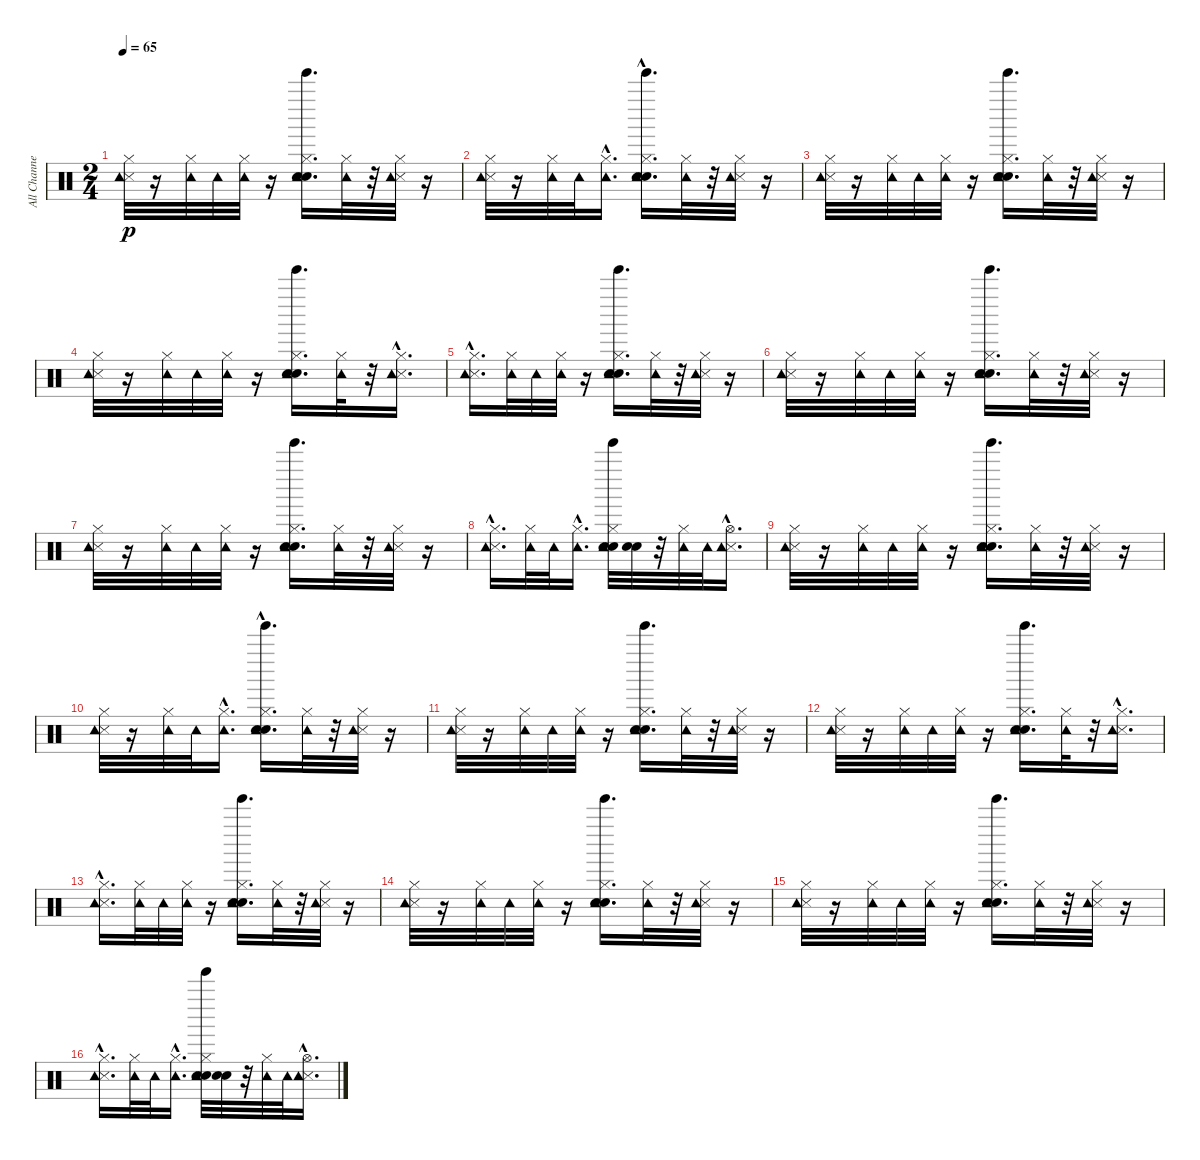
\track ("All Channels*merged" "All Channe") {instrument percussion}
\staff {score}
\articulation defaults
\ts (2 4)
\tempo 65
\clef neutral
\ks c
("Metronome (hit)" "Hi-Hat (closed)" "Tambourine (hit)").32{dy p} r.16 ("Hi-Hat (closed)" "Tambourine (hit)").32 "Tambourine (hit)".32 ("Hi-Hat (closed)" "Tambourine (hit)").32 r.16 ("Metronome (bell)" "Electric Snare (hit)" "Hi-Hat (closed)" "Tambourine (hit)" "Tinkle Bell (hit)").16{d} ("Hi-Hat (closed)" "Tambourine (hit)").32 r.32 ("Metronome (hit)" "Hi-Hat (closed)" "Tambourine (hit)").32 r.16 |
("Metronome (hit)" "Hi-Hat (closed)" "Tambourine (hit)").32 r.16 ("Hi-Hat (closed)" "Tambourine (hit)").32 "Tambourine (hit)".32 ("Hi-Hat (closed)" "Tambourine (hit)"{hac}).16{d} ("Metronome (bell)" "Electric Snare (hit)" "Hi-Hat (closed)" "Tambourine (hit)"{hac} "Tinkle Bell (hit)").16{d} ("Hi-Hat (closed)" "Tambourine (hit)").32 r.32 ("Metronome (hit)" "Hi-Hat (closed)" "Tambourine (hit)").32 r.16 |
("Metronome (hit)" "Hi-Hat (closed)" "Tambourine (hit)").32 r.16 ("Hi-Hat (closed)" "Tambourine (hit)").32 "Tambourine (hit)".32 ("Hi-Hat (closed)" "Tambourine (hit)").32 r.16 ("Metronome (bell)" "Electric Snare (hit)" "Hi-Hat (closed)" "Tambourine (hit)" "Tinkle Bell (hit)").16{d} ("Hi-Hat (closed)" "Tambourine (hit)").32 r.32 ("Metronome (hit)" "Hi-Hat (closed)" "Tambourine (hit)").32 r.16 |
("Metronome (hit)" "Hi-Hat (closed)" "Tambourine (hit)").32 r.16 ("Hi-Hat (closed)" "Tambourine (hit)").32 "Tambourine (hit)".32 ("Hi-Hat (closed)" "Tambourine (hit)").32 r.16 ("Metronome (bell)" "Electric Snare (hit)" "Hi-Hat (closed)" "Tambourine (hit)" "Tinkle Bell (hit)").16{d} ("Hi-Hat (closed)" "Tambourine (hit)").32 r.32 ("Metronome (hit)"{hac} "Hi-Hat (closed)" "Tambourine (hit)").16{d} |
("Metronome (hit)"{hac} "Hi-Hat (closed)" "Tambourine (hit)").16{d} ("Hi-Hat (closed)" "Tambourine (hit)").32 "Tambourine (hit)".32 ("Hi-Hat (closed)" "Tambourine (hit)").32 r.16 ("Metronome (bell)" "Electric Snare (hit)" "Hi-Hat (closed)" "Tambourine (hit)" "Tinkle Bell (hit)").16{d} ("Hi-Hat (closed)" "Tambourine (hit)").32 r.32 ("Metronome (hit)" "Hi-Hat (closed)" "Tambourine (hit)").32 r.16 |
("Metronome (hit)" "Hi-Hat (closed)" "Tambourine (hit)").32 r.16 ("Hi-Hat (closed)" "Tambourine (hit)").32 "Tambourine (hit)".32 ("Hi-Hat (closed)" "Tambourine (hit)").32 r.16 ("Metronome (bell)" "Electric Snare (hit)" "Hi-Hat (closed)" "Tambourine (hit)" "Tinkle Bell (hit)").16{d} ("Hi-Hat (closed)" "Tambourine (hit)").32 r.32 ("Metronome (hit)" "Hi-Hat (closed)" "Tambourine (hit)").32 r.16 |
("Metronome (hit)" "Hi-Hat (closed)" "Tambourine (hit)").32 r.16 ("Hi-Hat (closed)" "Tambourine (hit)").32 "Tambourine (hit)".32 ("Hi-Hat (closed)" "Tambourine (hit)").32 r.16 ("Metronome (bell)" "Electric Snare (hit)" "Hi-Hat (closed)" "Tambourine (hit)" "Tinkle Bell (hit)").16{d} ("Hi-Hat (closed)" "Tambourine (hit)").32 r.32 ("Metronome (hit)" "Hi-Hat (closed)" "Tambourine (hit)").32 r.16 |
("Metronome (hit)"{hac} "Hi-Hat (closed)" "Tambourine (hit)").16{d} ("Hi-Hat (closed)" "Tambourine (hit)").32 "Tambourine (hit)".32 ("Hi-Hat (closed)" "Tambourine (hit)"{hac}).16{d} ("Metronome (bell)" "Electric Snare (hit)" "Hi-Hat (closed)" "Tambourine (hit)" "Tinkle Bell (hit)").32 ("Metronome (bell)" "Electric Snare (hit)").32 r.32 ("Hi-Hat (closed)" "Tambourine (hit)").32 "Tambourine (hit)".32 ("Metronome (hit)"{hac} "Hi-Hat (open)" "Tambourine (hit)").16{d} |
("Metronome (hit)" "Hi-Hat (closed)" "Tambourine (hit)").32 r.16 ("Hi-Hat (closed)" "Tambourine (hit)").32 "Tambourine (hit)".32 ("Hi-Hat (closed)" "Tambourine (hit)").32 r.16 ("Metronome (bell)" "Electric Snare (hit)" "Hi-Hat (closed)" "Tambourine (hit)" "Tinkle Bell (hit)").16{d} ("Hi-Hat (closed)" "Tambourine (hit)").32 r.32 ("Metronome (hit)" "Hi-Hat (closed)" "Tambourine (hit)").32 r.16 |
("Metronome (hit)" "Hi-Hat (closed)" "Tambourine (hit)").32 r.16 ("Hi-Hat (closed)" "Tambourine (hit)").32 "Tambourine (hit)".32 ("Hi-Hat (closed)" "Tambourine (hit)"{hac}).16{d} ("Metronome (bell)" "Electric Snare (hit)" "Hi-Hat (closed)" "Tambourine (hit)"{hac} "Tinkle Bell (hit)").16{d} ("Hi-Hat (closed)" "Tambourine (hit)").32 r.32 ("Metronome (hit)" "Hi-Hat (closed)" "Tambourine (hit)").32 r.16 |
("Metronome (hit)" "Hi-Hat (closed)" "Tambourine (hit)").32 r.16 ("Hi-Hat (closed)" "Tambourine (hit)").32 "Tambourine (hit)".32 ("Hi-Hat (closed)" "Tambourine (hit)").32 r.16 ("Metronome (bell)" "Electric Snare (hit)" "Hi-Hat (closed)" "Tambourine (hit)" "Tinkle Bell (hit)").16{d} ("Hi-Hat (closed)" "Tambourine (hit)").32 r.32 ("Metronome (hit)" "Hi-Hat (closed)" "Tambourine (hit)").32 r.16 |
("Metronome (hit)" "Hi-Hat (closed)" "Tambourine (hit)").32 r.16 ("Hi-Hat (closed)" "Tambourine (hit)").32 "Tambourine (hit)".32 ("Hi-Hat (closed)" "Tambourine (hit)").32 r.16 ("Metronome (bell)" "Electric Snare (hit)" "Hi-Hat (closed)" "Tambourine (hit)" "Tinkle Bell (hit)").16{d} ("Hi-Hat (closed)" "Tambourine (hit)").32 r.32 ("Metronome (hit)"{hac} "Hi-Hat (closed)" "Tambourine (hit)").16{d} |
("Metronome (hit)"{hac} "Hi-Hat (closed)" "Tambourine (hit)").16{d} ("Hi-Hat (closed)" "Tambourine (hit)").32 "Tambourine (hit)".32 ("Hi-Hat (closed)" "Tambourine (hit)").32 r.16 ("Metronome (bell)" "Electric Snare (hit)" "Hi-Hat (closed)" "Tambourine (hit)" "Tinkle Bell (hit)").16{d} ("Hi-Hat (closed)" "Tambourine (hit)").32 r.32 ("Metronome (hit)" "Hi-Hat (closed)" "Tambourine (hit)").32 r.16 |
("Metronome (hit)" "Hi-Hat (closed)" "Tambourine (hit)").32 r.16 ("Hi-Hat (closed)" "Tambourine (hit)").32 "Tambourine (hit)".32 ("Hi-Hat (closed)" "Tambourine (hit)").32 r.16 ("Metronome (bell)" "Electric Snare (hit)" "Hi-Hat (closed)" "Tambourine (hit)" "Tinkle Bell (hit)").16{d} ("Hi-Hat (closed)" "Tambourine (hit)").32 r.32 ("Metronome (hit)" "Hi-Hat (closed)" "Tambourine (hit)").32 r.16 |
("Metronome (hit)" "Hi-Hat (closed)" "Tambourine (hit)").32 r.16 ("Hi-Hat (closed)" "Tambourine (hit)").32 "Tambourine (hit)".32 ("Hi-Hat (closed)" "Tambourine (hit)").32 r.16 ("Metronome (bell)" "Electric Snare (hit)" "Hi-Hat (closed)" "Tambourine (hit)" "Tinkle Bell (hit)").16{d} ("Hi-Hat (closed)" "Tambourine (hit)").32 r.32 ("Metronome (hit)" "Hi-Hat (closed)" "Tambourine (hit)").32 r.16 |
("Metronome (hit)"{hac} "Hi-Hat (closed)" "Tambourine (hit)").16{d} ("Hi-Hat (closed)" "Tambourine (hit)").32 "Tambourine (hit)".32 ("Hi-Hat (closed)" "Tambourine (hit)"{hac}).16{d} ("Metronome (bell)" "Electric Snare (hit)" "Hi-Hat (closed)" "Tambourine (hit)" "Tinkle Bell (hit)").32 ("Metronome (bell)" "Electric Snare (hit)").32 r.32 ("Hi-Hat (closed)" "Tambourine (hit)").32 "Tambourine (hit)".32 ("Metronome (hit)"{hac} "Hi-Hat (open)" "Tambourine (hit)").16{d}
